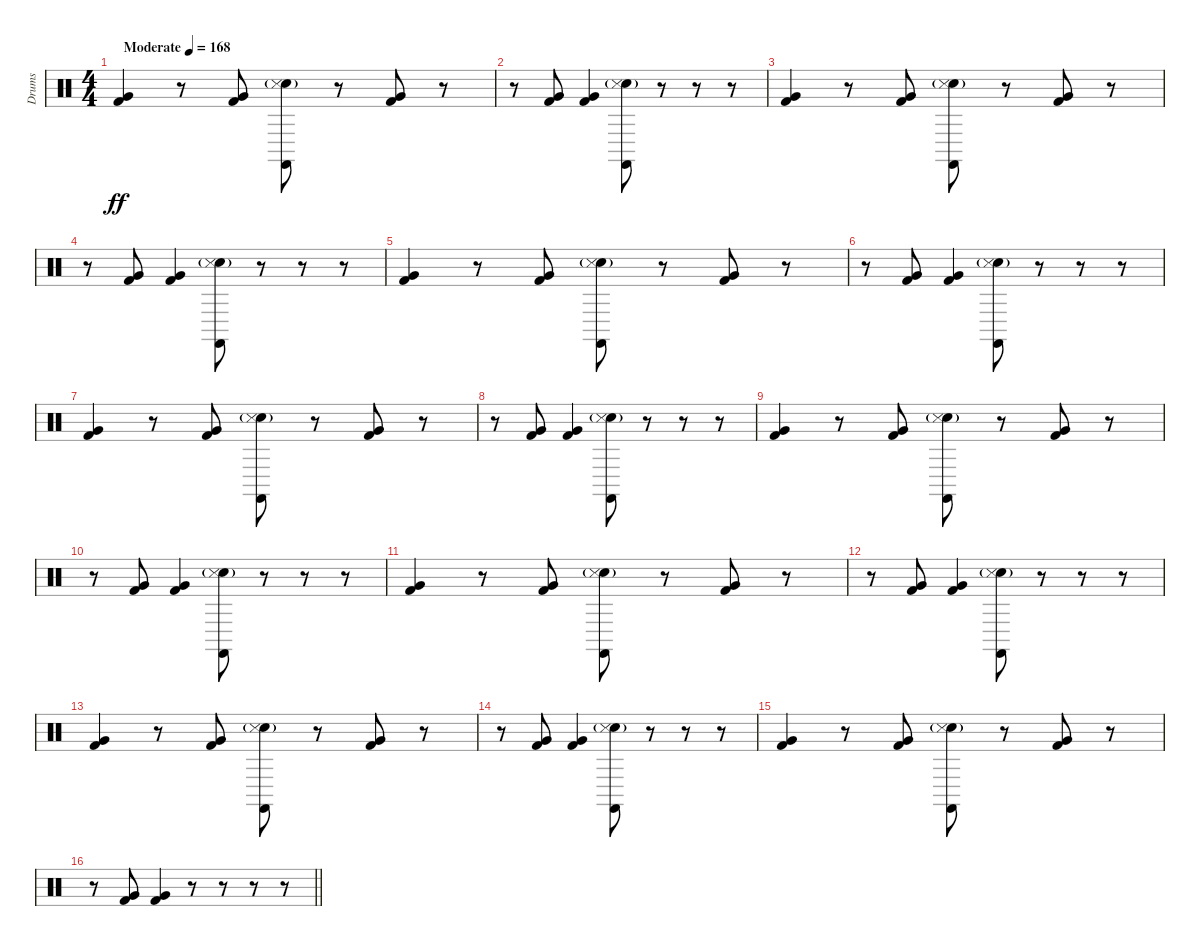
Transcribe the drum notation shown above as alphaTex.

\track ("Drums" "Drums") {instrument percussion}
\staff {score}
\articulation defaults
\ts (4 4)
\tempo (168 "Moderate")
\clef neutral
\ks c
("Very Low Tom (hit)" "Kick (hit) 2").4{dy ff} r.8 ("Very Low Tom (hit)" "Kick (hit) 2").8 ("Hand Clap (hit)"{g} "Castanets (hit)" "Snare (side stick) 3").8 r.8 ("Very Low Tom (hit)" "Kick (hit) 2").8 r.8 |
r.8 ("Very Low Tom (hit)" "Kick (hit) 2").8 ("Very Low Tom (hit)" "Kick (hit) 2").4 ("Hand Clap (hit)"{g} "Castanets (hit)" "Snare (side stick) 3").8 r.8 r.8 r.8 |
("Very Low Tom (hit)" "Kick (hit) 2").4 r.8 ("Very Low Tom (hit)" "Kick (hit) 2").8 ("Hand Clap (hit)"{g} "Castanets (hit)" "Snare (side stick) 3").8 r.8 ("Very Low Tom (hit)" "Kick (hit) 2").8 r.8 |
r.8 ("Very Low Tom (hit)" "Kick (hit) 2").8 ("Very Low Tom (hit)" "Kick (hit) 2").4 ("Hand Clap (hit)"{g} "Castanets (hit)" "Snare (side stick) 3").8 r.8 r.8 r.8 |
("Very Low Tom (hit)" "Kick (hit) 2").4 r.8 ("Very Low Tom (hit)" "Kick (hit) 2").8 ("Hand Clap (hit)"{g} "Castanets (hit)" "Snare (side stick) 3").8 r.8 ("Very Low Tom (hit)" "Kick (hit) 2").8 r.8 |
r.8 ("Very Low Tom (hit)" "Kick (hit) 2").8 ("Very Low Tom (hit)" "Kick (hit) 2").4 ("Hand Clap (hit)"{g} "Castanets (hit)" "Snare (side stick) 3").8 r.8 r.8 r.8 |
("Very Low Tom (hit)" "Kick (hit) 2").4 r.8 ("Very Low Tom (hit)" "Kick (hit) 2").8 ("Hand Clap (hit)"{g} "Castanets (hit)" "Snare (side stick) 3").8 r.8 ("Very Low Tom (hit)" "Kick (hit) 2").8 r.8 |
r.8 ("Very Low Tom (hit)" "Kick (hit) 2").8 ("Very Low Tom (hit)" "Kick (hit) 2").4 ("Hand Clap (hit)"{g} "Castanets (hit)" "Snare (side stick) 3").8 r.8 r.8 r.8 |
("Very Low Tom (hit)" "Kick (hit) 2").4 r.8 ("Very Low Tom (hit)" "Kick (hit) 2").8 ("Hand Clap (hit)"{g} "Castanets (hit)" "Snare (side stick) 3").8 r.8 ("Very Low Tom (hit)" "Kick (hit) 2").8 r.8 |
r.8 ("Very Low Tom (hit)" "Kick (hit) 2").8 ("Very Low Tom (hit)" "Kick (hit) 2").4 ("Hand Clap (hit)"{g} "Castanets (hit)" "Snare (side stick) 3").8 r.8 r.8 r.8 |
("Very Low Tom (hit)" "Kick (hit) 2").4 r.8 ("Very Low Tom (hit)" "Kick (hit) 2").8 ("Hand Clap (hit)"{g} "Castanets (hit)" "Snare (side stick) 3").8 r.8 ("Very Low Tom (hit)" "Kick (hit) 2").8 r.8 |
r.8 ("Very Low Tom (hit)" "Kick (hit) 2").8 ("Very Low Tom (hit)" "Kick (hit) 2").4 ("Hand Clap (hit)"{g} "Castanets (hit)" "Snare (side stick) 3").8 r.8 r.8 r.8 |
("Very Low Tom (hit)" "Kick (hit) 2").4 r.8 ("Very Low Tom (hit)" "Kick (hit) 2").8 ("Hand Clap (hit)"{g} "Castanets (hit)" "Snare (side stick) 3").8 r.8 ("Very Low Tom (hit)" "Kick (hit) 2").8 r.8 |
r.8 ("Very Low Tom (hit)" "Kick (hit) 2").8 ("Very Low Tom (hit)" "Kick (hit) 2").4 ("Hand Clap (hit)"{g} "Castanets (hit)" "Snare (side stick) 3").8 r.8 r.8 r.8 |
("Very Low Tom (hit)" "Kick (hit) 2").4 r.8 ("Very Low Tom (hit)" "Kick (hit) 2").8 ("Hand Clap (hit)"{g} "Castanets (hit)" "Snare (side stick) 3").8 r.8 ("Very Low Tom (hit)" "Kick (hit) 2").8 r.8 |
\barLineRight lightlight
r.8 ("Very Low Tom (hit)" "Kick (hit) 2").8 ("Very Low Tom (hit)" "Kick (hit) 2").4 r.8 r.8 r.8 r.8
